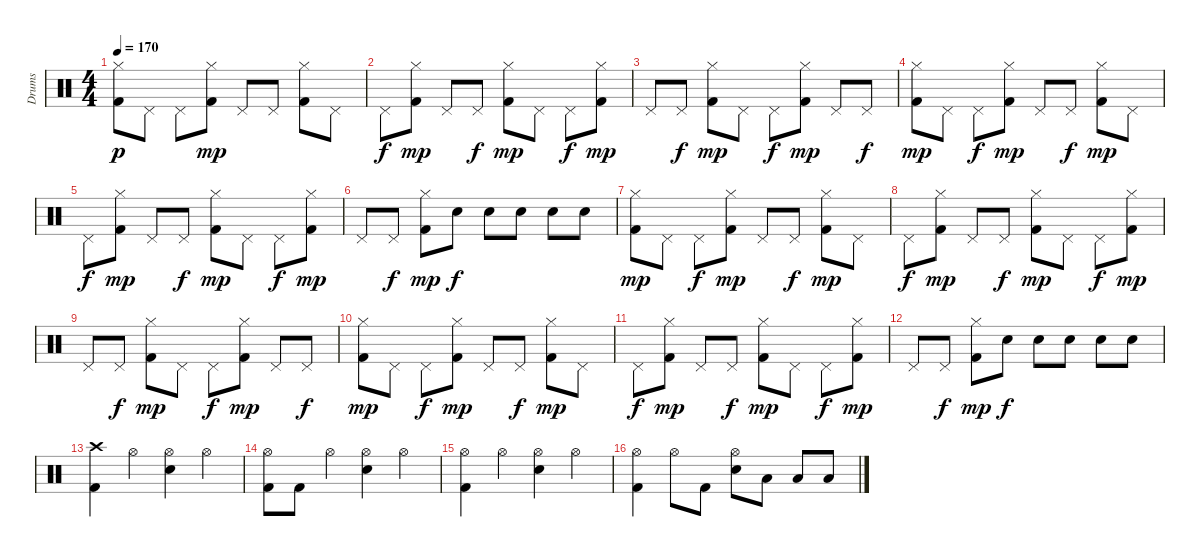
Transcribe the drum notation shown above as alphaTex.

\track ("Drums" "Drums") {instrument percussion}
\staff {score}
\articulation defaults
\ts (4 4)
\tempo 170
\clef neutral
\ks c
("Hi-Hat (closed)" "Kick (hit) 2").8{dy p} "Pedal Hi-Hat (hit)".8 "Pedal Hi-Hat (hit)".8 ("Hi-Hat (closed)" "Kick (hit) 2").8{dy mp} "Pedal Hi-Hat (hit)".8 "Pedal Hi-Hat (hit)".8 ("Hi-Hat (closed)" "Kick (hit) 2").8 "Pedal Hi-Hat (hit)".8 |
"Pedal Hi-Hat (hit)".8{dy f} ("Hi-Hat (closed)" "Kick (hit) 2").8{dy mp} "Pedal Hi-Hat (hit)".8 "Pedal Hi-Hat (hit)".8{dy f} ("Hi-Hat (closed)" "Kick (hit) 2").8{dy mp} "Pedal Hi-Hat (hit)".8 "Pedal Hi-Hat (hit)".8{dy f} ("Hi-Hat (closed)" "Kick (hit) 2").8{dy mp} |
"Pedal Hi-Hat (hit)".8 "Pedal Hi-Hat (hit)".8{dy f} ("Hi-Hat (closed)" "Kick (hit) 2").8{dy mp} "Pedal Hi-Hat (hit)".8 "Pedal Hi-Hat (hit)".8{dy f} ("Hi-Hat (closed)" "Kick (hit) 2").8{dy mp} "Pedal Hi-Hat (hit)".8 "Pedal Hi-Hat (hit)".8{dy f} |
("Hi-Hat (closed)" "Kick (hit) 2").8{dy mp} "Pedal Hi-Hat (hit)".8 "Pedal Hi-Hat (hit)".8{dy f} ("Hi-Hat (closed)" "Kick (hit) 2").8{dy mp} "Pedal Hi-Hat (hit)".8 "Pedal Hi-Hat (hit)".8{dy f} ("Hi-Hat (closed)" "Kick (hit) 2").8{dy mp} "Pedal Hi-Hat (hit)".8 |
"Pedal Hi-Hat (hit)".8{dy f} ("Hi-Hat (closed)" "Kick (hit) 2").8{dy mp} "Pedal Hi-Hat (hit)".8 "Pedal Hi-Hat (hit)".8{dy f} ("Hi-Hat (closed)" "Kick (hit) 2").8{dy mp} "Pedal Hi-Hat (hit)".8 "Pedal Hi-Hat (hit)".8{dy f} ("Hi-Hat (closed)" "Kick (hit) 2").8{dy mp} |
"Pedal Hi-Hat (hit)".8 "Pedal Hi-Hat (hit)".8{dy f} ("Hi-Hat (closed)" "Kick (hit) 2").8{dy mp} "Electric Snare (hit)".8{dy f} "Electric Snare (hit)".8 "Electric Snare (hit)".8 "Electric Snare (hit)".8 "Electric Snare (hit)".8 |
("Hi-Hat (closed)" "Kick (hit) 2").8{dy mp} "Pedal Hi-Hat (hit)".8 "Pedal Hi-Hat (hit)".8{dy f} ("Hi-Hat (closed)" "Kick (hit) 2").8{dy mp} "Pedal Hi-Hat (hit)".8 "Pedal Hi-Hat (hit)".8{dy f} ("Hi-Hat (closed)" "Kick (hit) 2").8{dy mp} "Pedal Hi-Hat (hit)".8 |
"Pedal Hi-Hat (hit)".8{dy f} ("Hi-Hat (closed)" "Kick (hit) 2").8{dy mp} "Pedal Hi-Hat (hit)".8 "Pedal Hi-Hat (hit)".8{dy f} ("Hi-Hat (closed)" "Kick (hit) 2").8{dy mp} "Pedal Hi-Hat (hit)".8 "Pedal Hi-Hat (hit)".8{dy f} ("Hi-Hat (closed)" "Kick (hit) 2").8{dy mp} |
"Pedal Hi-Hat (hit)".8 "Pedal Hi-Hat (hit)".8{dy f} ("Hi-Hat (closed)" "Kick (hit) 2").8{dy mp} "Pedal Hi-Hat (hit)".8 "Pedal Hi-Hat (hit)".8{dy f} ("Hi-Hat (closed)" "Kick (hit) 2").8{dy mp} "Pedal Hi-Hat (hit)".8 "Pedal Hi-Hat (hit)".8{dy f} |
("Hi-Hat (closed)" "Kick (hit) 2").8{dy mp} "Pedal Hi-Hat (hit)".8 "Pedal Hi-Hat (hit)".8{dy f} ("Hi-Hat (closed)" "Kick (hit) 2").8{dy mp} "Pedal Hi-Hat (hit)".8 "Pedal Hi-Hat (hit)".8{dy f} ("Hi-Hat (closed)" "Kick (hit) 2").8{dy mp} "Pedal Hi-Hat (hit)".8 |
"Pedal Hi-Hat (hit)".8{dy f} ("Hi-Hat (closed)" "Kick (hit) 2").8{dy mp} "Pedal Hi-Hat (hit)".8 "Pedal Hi-Hat (hit)".8{dy f} ("Hi-Hat (closed)" "Kick (hit) 2").8{dy mp} "Pedal Hi-Hat (hit)".8 "Pedal Hi-Hat (hit)".8{dy f} ("Hi-Hat (closed)" "Kick (hit) 2").8{dy mp} |
"Pedal Hi-Hat (hit)".8 "Pedal Hi-Hat (hit)".8{dy f} ("Hi-Hat (closed)" "Kick (hit) 2").8{dy mp} "Electric Snare (hit)".8{dy f} "Electric Snare (hit)".8 "Electric Snare (hit)".8 "Electric Snare (hit)".8 "Electric Snare (hit)".8 |
("Crash high (hit)" "Kick (hit) 2").4 "Hi-Hat (open)".4 ("Hi-Hat (open)" "Electric Snare (hit)").4 "Hi-Hat (open)".4 |
("Hi-Hat (open)" "Kick (hit) 2").8 "Kick (hit) 2".8 "Hi-Hat (open)".4 ("Hi-Hat (open)" "Electric Snare (hit)").4 "Hi-Hat (open)".4 |
("Hi-Hat (open)" "Kick (hit) 2").4 "Hi-Hat (open)".4 ("Hi-Hat (open)" "Electric Snare (hit)").4 "Hi-Hat (open)".4 |
("Hi-Hat (open)" "Kick (hit) 2").4 "Hi-Hat (open)".8 "Kick (hit) 2".8 ("Hi-Hat (open)" "Electric Snare (hit)").8 "Low Tom (hit)".8 "Low Tom (hit)".8 "Low Tom (hit)".8
